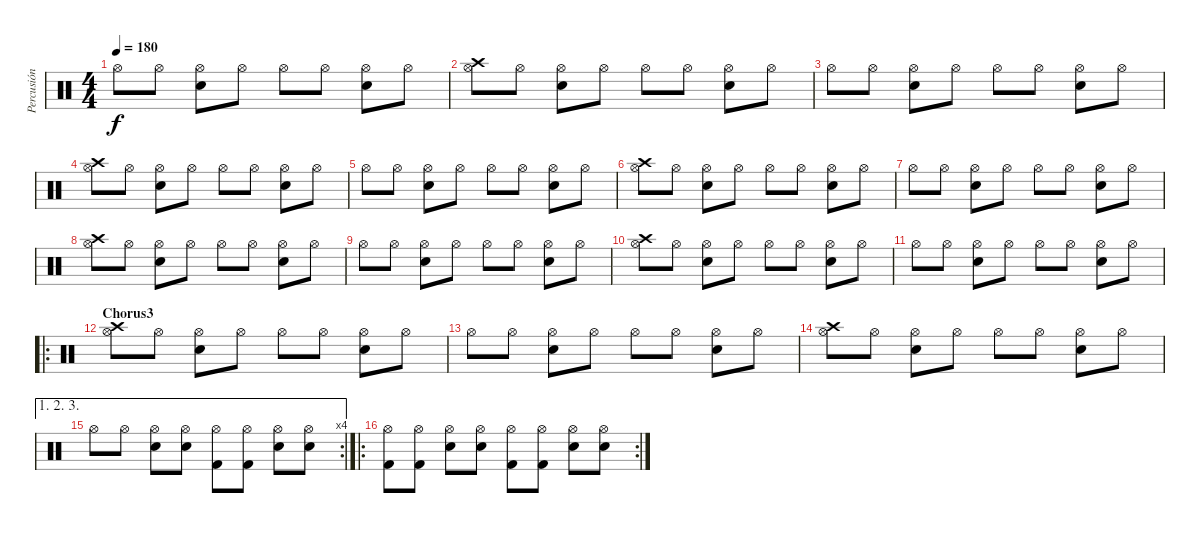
\track ("Percusión" "Percusión") {instrument percussion}
\staff {score}
\articulation defaults
\ts (4 4)
\tempo 180
\clef neutral
\ks c "Hi-Hat (open)".8{dy f} "Hi-Hat (open)".8
("Hi-Hat (open)" "Snare (hit) 2").8 "Hi-Hat (open)".8 "Hi-Hat (open)".8 "Hi-Hat (open)".8 ("Hi-Hat (open)" "Snare (hit) 2").8 "Hi-Hat (open)".8 |
("Hi-Hat (open)" "Crash high (hit)").8 "Hi-Hat (open)".8 ("Hi-Hat (open)" "Snare (hit) 2").8 "Hi-Hat (open)".8 "Hi-Hat (open)".8 "Hi-Hat (open)".8 ("Hi-Hat (open)" "Snare (hit) 2").8 "Hi-Hat (open)".8 |
"Hi-Hat (open)".8 "Hi-Hat (open)".8 ("Hi-Hat (open)" "Snare (hit) 2").8 "Hi-Hat (open)".8 "Hi-Hat (open)".8 "Hi-Hat (open)".8 ("Snare (hit) 2" "Hi-Hat (open)").8 "Hi-Hat (open)".8 |
("Hi-Hat (open)" "Crash high (hit)").8 "Hi-Hat (open)".8 ("Hi-Hat (open)" "Snare (hit) 2").8 "Hi-Hat (open)".8 "Hi-Hat (open)".8 "Hi-Hat (open)".8 ("Hi-Hat (open)" "Snare (hit) 2").8 "Hi-Hat (open)".8 |
"Hi-Hat (open)".8 "Hi-Hat (open)".8 ("Hi-Hat (open)" "Snare (hit) 2").8 "Hi-Hat (open)".8 "Hi-Hat (open)".8 "Hi-Hat (open)".8 ("Hi-Hat (open)" "Snare (hit) 2").8 "Hi-Hat (open)".8 |
("Hi-Hat (open)" "Crash high (hit)").8 "Hi-Hat (open)".8 ("Hi-Hat (open)" "Snare (hit) 2").8 "Hi-Hat (open)".8 "Hi-Hat (open)".8 "Hi-Hat (open)".8 ("Hi-Hat (open)" "Snare (hit) 2").8 "Hi-Hat (open)".8 |
"Hi-Hat (open)".8 "Hi-Hat (open)".8 ("Hi-Hat (open)" "Snare (hit) 2").8 "Hi-Hat (open)".8 "Hi-Hat (open)".8 "Hi-Hat (open)".8 ("Snare (hit) 2" "Hi-Hat (open)").8 "Hi-Hat (open)".8 |
("Hi-Hat (open)" "Crash high (hit)").8 "Hi-Hat (open)".8 ("Hi-Hat (open)" "Snare (hit) 2").8 "Hi-Hat (open)".8 "Hi-Hat (open)".8 "Hi-Hat (open)".8 ("Hi-Hat (open)" "Snare (hit) 2").8 "Hi-Hat (open)".8 |
"Hi-Hat (open)".8 "Hi-Hat (open)".8 ("Hi-Hat (open)" "Snare (hit) 2").8 "Hi-Hat (open)".8 "Hi-Hat (open)".8 "Hi-Hat (open)".8 ("Hi-Hat (open)" "Snare (hit) 2").8 "Hi-Hat (open)".8 |
("Hi-Hat (open)" "Crash high (hit)").8 "Hi-Hat (open)".8 ("Hi-Hat (open)" "Snare (hit) 2").8 "Hi-Hat (open)".8 "Hi-Hat (open)".8 "Hi-Hat (open)".8 ("Hi-Hat (open)" "Snare (hit) 2").8 "Hi-Hat (open)".8 |
"Hi-Hat (open)".8 "Hi-Hat (open)".8 ("Hi-Hat (open)" "Snare (hit) 2").8 "Hi-Hat (open)".8 "Hi-Hat (open)".8 "Hi-Hat (open)".8 ("Snare (hit) 2" "Hi-Hat (open)").8 "Hi-Hat (open)".8 |
\ro
\section ("" "Chorus3")
("Hi-Hat (open)" "Crash high (hit)").8 "Hi-Hat (open)".8 ("Hi-Hat (open)" "Snare (hit) 2").8 "Hi-Hat (open)".8 "Hi-Hat (open)".8 "Hi-Hat (open)".8 ("Hi-Hat (open)" "Snare (hit) 2").8 "Hi-Hat (open)".8 |
"Hi-Hat (open)".8 "Hi-Hat (open)".8 ("Hi-Hat (open)" "Snare (hit) 2").8 "Hi-Hat (open)".8 "Hi-Hat (open)".8 "Hi-Hat (open)".8 ("Hi-Hat (open)" "Snare (hit) 2").8 "Hi-Hat (open)".8 |
("Hi-Hat (open)" "Crash high (hit)").8 "Hi-Hat (open)".8 ("Hi-Hat (open)" "Snare (hit) 2").8 "Hi-Hat (open)".8 "Hi-Hat (open)".8 "Hi-Hat (open)".8 ("Hi-Hat (open)" "Snare (hit) 2").8 "Hi-Hat (open)".8 |
\ae (1 2 3)
\rc 4 "Hi-Hat (open)".8 "Hi-Hat (open)".8
("Hi-Hat (open)" "Snare (hit) 2").8 ("Hi-Hat (open)" "Snare (hit) 2").8 ("Hi-Hat (open)" "Kick (hit) 2").8 ("Hi-Hat (open)" "Kick (hit) 2").8 ("Hi-Hat (open)" "Snare (hit) 2").8 ("Hi-Hat (open)" "Snare (hit) 2").8 |
\ro
\rc 2
("Hi-Hat (open)" "Kick (hit) 2").8 ("Hi-Hat (open)" "Kick (hit) 2").8 ("Hi-Hat (open)" "Snare (hit) 2").8 ("Hi-Hat (open)" "Snare (hit) 2").8 ("Hi-Hat (open)" "Kick (hit) 2").8 ("Hi-Hat (open)" "Kick (hit) 2").8 ("Hi-Hat (open)" "Snare (hit) 2").8 ("Hi-Hat (open)" "Snare (hit) 2").8
